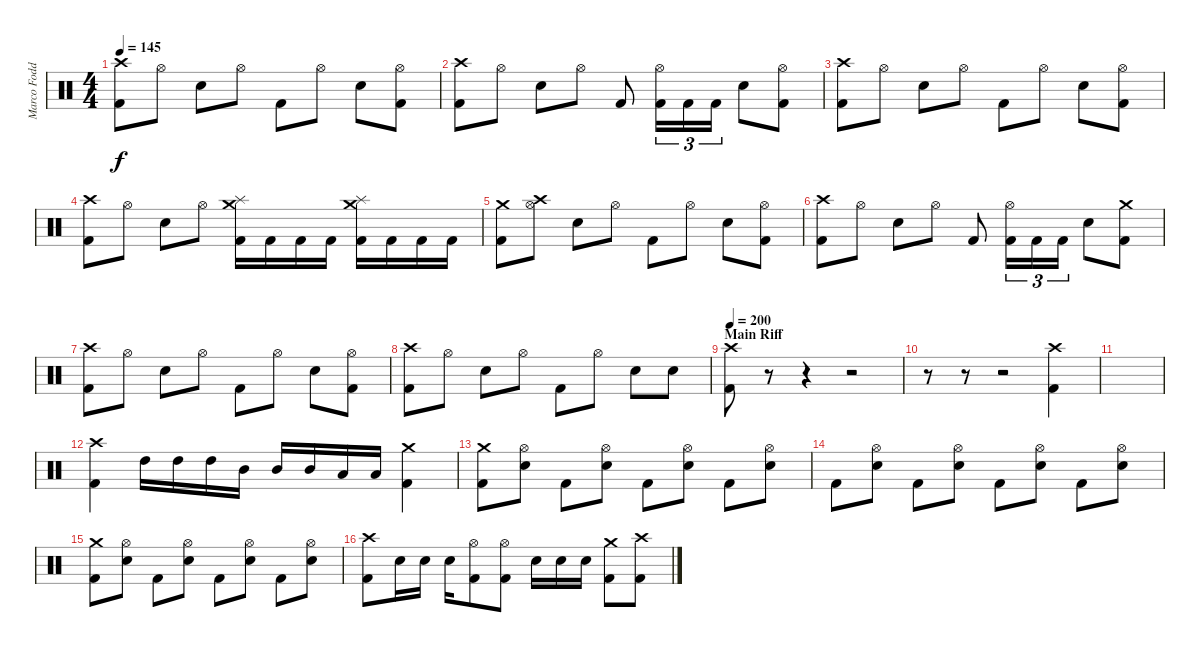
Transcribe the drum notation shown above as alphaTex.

\track ("Marco Foddis " "Marco Fodd") {instrument percussion}
\staff {score}
\articulation defaults
\ts (4 4)
\tempo 145
\clef neutral
\ks c
("Crash high (hit)" "Kick (hit) 2").8{dy f} "Hi-Hat (open)".8 "Electric Snare (hit)".8 "Hi-Hat (open)".8 "Kick (hit) 2".8 "Hi-Hat (open)".8 "Electric Snare (hit)".8 ("Hi-Hat (open)" "Kick (hit) 2").8 |
("Crash high (hit)" "Kick (hit) 2").8 "Hi-Hat (open)".8 "Electric Snare (hit)".8 "Hi-Hat (open)".8 "Kick (hit) 2".8 ("Hi-Hat (open)" "Kick (hit) 2").16{tu (3 2)} "Kick (hit) 2".16{tu (3 2)} "Kick (hit) 2".16{tu (3 2)} "Electric Snare (hit)".8 ("Hi-Hat (open)" "Kick (hit) 2").8 |
("Crash high (hit)" "Kick (hit) 2").8 "Hi-Hat (open)".8 "Electric Snare (hit)".8 "Hi-Hat (open)".8 "Kick (hit) 2".8 "Hi-Hat (open)".8 "Electric Snare (hit)".8 ("Hi-Hat (open)" "Kick (hit) 2").8 |
("Crash high (hit)" "Kick (hit) 2").8 "Hi-Hat (open)".8 "Electric Snare (hit)".8 "Hi-Hat (open)".8 ("Crash medium (hit)" "Splash (hit)" "Kick (hit) 2").16 "Kick (hit) 2".16 "Kick (hit) 2".16 "Kick (hit) 2".16 ("Crash medium (hit)" "Splash (hit)" "Kick (hit) 2").16 "Kick (hit) 2".16 "Kick (hit) 2".16 "Kick (hit) 2".16 |
("Crash medium (hit)" "Kick (hit) 2").8 ("Crash high (hit)" "Hi-Hat (open)").8 "Electric Snare (hit)".8 "Hi-Hat (open)".8 "Kick (hit) 2".8 "Hi-Hat (open)".8 "Electric Snare (hit)".8 ("Hi-Hat (open)" "Kick (hit) 2").8 |
("Crash high (hit)" "Kick (hit) 2").8 "Hi-Hat (open)".8 "Electric Snare (hit)".8 "Hi-Hat (open)".8 "Kick (hit) 2".8 ("Hi-Hat (open)" "Kick (hit) 2").16{tu (3 2)} "Kick (hit) 2".16{tu (3 2)} "Kick (hit) 2".16{tu (3 2)} "Electric Snare (hit)".8 ("Crash medium (hit)" "Kick (hit) 2").8 |
("Crash high (hit)" "Kick (hit) 2").8 "Hi-Hat (open)".8 "Electric Snare (hit)".8 "Hi-Hat (open)".8 "Kick (hit) 2".8 "Hi-Hat (open)".8 "Electric Snare (hit)".8 ("Hi-Hat (open)" "Kick (hit) 2").8 |
("Crash high (hit)" "Kick (hit) 2").8 "Hi-Hat (open)".8 "Electric Snare (hit)".8 "Hi-Hat (open)".8 "Kick (hit) 2".8 "Hi-Hat (open)".8 "Electric Snare (hit)".8 "Electric Snare (hit)".8 |
\section ("" "Main Riff")
\tempo 200
("Crash high (hit)" "Kick (hit) 2").8 r.8 r.4 r.2 |
r.8 r.8 r.2 ("Crash high (hit)" "Kick (hit) 2").4 |
|
("Crash high (hit)" "Kick (hit) 2").4 "High Tom (hit)".16 "High Tom (hit)".16 "High Tom (hit)".16 "Mid Tom (hit)".16 "Mid Tom (hit)".16 "Mid Tom (hit)".16 "Low Tom (hit)".16 "Low Tom (hit)".16 ("Crash medium (hit)" "Kick (hit) 2").4 |
("Crash medium (hit)" "Kick (hit) 2").8 ("Hi-Hat (open)" "Electric Snare (hit)").8 "Kick (hit) 2".8 ("Hi-Hat (open)" "Electric Snare (hit)").8 "Kick (hit) 2".8 ("Hi-Hat (open)" "Electric Snare (hit)").8 "Kick (hit) 2".8 ("Hi-Hat (open)" "Electric Snare (hit)").8 |
"Kick (hit) 2".8 ("Hi-Hat (open)" "Electric Snare (hit)").8 "Kick (hit) 2".8 ("Hi-Hat (open)" "Electric Snare (hit)").8 "Kick (hit) 2".8 ("Hi-Hat (open)" "Electric Snare (hit)").8 "Kick (hit) 2".8 ("Hi-Hat (open)" "Electric Snare (hit)").8 |
("Crash medium (hit)" "Kick (hit) 2").8 ("Hi-Hat (open)" "Electric Snare (hit)").8 "Kick (hit) 2".8 ("Hi-Hat (open)" "Electric Snare (hit)").8 "Kick (hit) 2".8 ("Hi-Hat (open)" "Electric Snare (hit)").8 "Kick (hit) 2".8 ("Hi-Hat (open)" "Electric Snare (hit)").8 |
("Crash high (hit)" "Kick (hit) 2").8 "Electric Snare (hit)".16 "Electric Snare (hit)".16 "Electric Snare (hit)".16 ("Hi-Hat (open)" "Kick (hit) 2").8 ("Hi-Hat (open)" "Kick (hit) 2").8 "Electric Snare (hit)".16 "Electric Snare (hit)".16 "Electric Snare (hit)".16 ("Crash medium (hit)" "Kick (hit) 2").8 ("Crash high (hit)" "Kick (hit) 2").8
